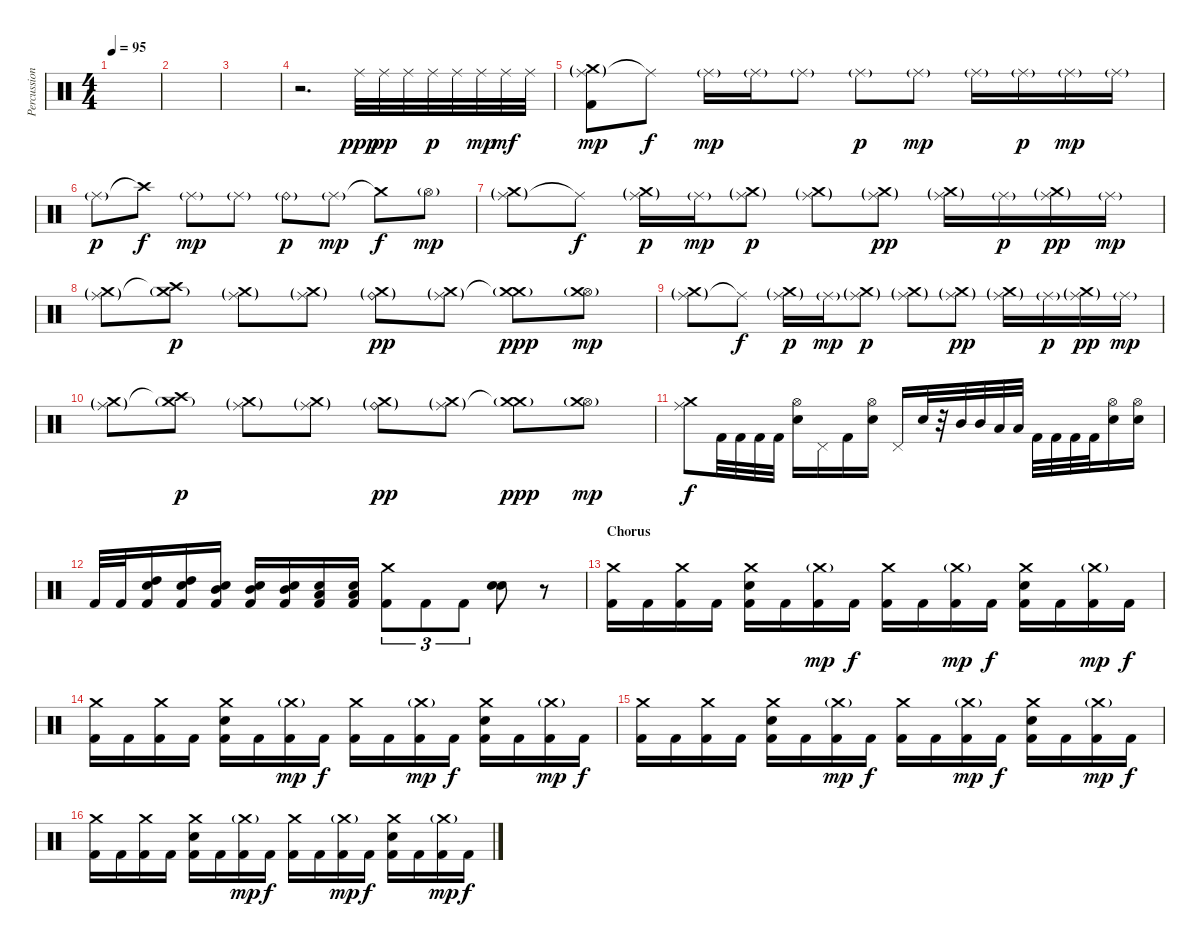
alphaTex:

\track ("Percussions" "Percussion") {instrument percussion}
\staff {score}
\articulation defaults
\ts (4 4)
\tempo 95
\clef neutral
\ks c
|
|
|
r.2{d} "Ride (middle)".32{dy ppp} "Ride (middle)".32{dy pp} "Ride (middle)".32 "Ride (middle)".32{dy p} "Ride (middle)".32 "Ride (middle)".32{dy mp} "Ride (middle)".32{dy mf} "Ride (middle)".32 |
("Ride (middle)"{g} "Crash medium (hit)"{g} "Kick (hit) 2").8{dy mp} "Ride (middle)"{t}.8{dy f} "Ride (middle)"{g}.16{dy mp} "Ride (middle)"{g}.16 "Ride (middle)"{g}.8 "Ride (middle)"{g}.8{dy p} "Ride (middle)"{g}.8{dy mp} "Ride (middle)"{g}.16 "Ride (middle)"{g}.16{dy p} "Ride (middle)"{g}.16{dy mp} "Ride (middle)"{g}.16 |
"Ride (middle)"{g}.8{dy p} "Crash high (hit)"{t}.8{dy f} "Ride (middle)"{g}.8{dy mp} "Ride (middle)"{g}.8 "Ride (bell)"{g}.8{dy p} "Ride (middle)"{g}.8{dy mp} "Crash medium (hit)"{t}.8{dy f} "Hi-Hat (open)"{g}.8{dy mp} |
("Ride (middle)"{g} "Crash medium (hit)"{g}).8 "Ride (middle)"{t}.8{dy f} ("Ride (middle)"{g} "Crash medium (hit)"{g}).16{dy p} "Ride (middle)"{g}.16{dy mp} ("Ride (middle)"{g} "Crash medium (hit)"{g}).8{dy p} ("Ride (middle)"{g} "Crash medium (hit)"{g}).8 ("Ride (middle)"{g} "Crash medium (hit)"{g}).8{dy pp} ("Ride (middle)"{g} "Crash medium (hit)"{g}).16 "Ride (middle)"{g}.16{dy p} ("Ride (middle)"{g} "Crash medium (hit)"{g}).16{dy pp} "Ride (middle)"{g}.16{dy mp} |
("Ride (middle)"{g} "Crash medium (hit)"{g}).8 ("Crash high (hit)"{t} "Crash medium (hit)"{g}).8{dy p} ("Ride (middle)"{g} "Crash medium (hit)"{g}).8 ("Ride (middle)"{g} "Crash medium (hit)"{g}).8 ("Ride (bell)"{g} "Crash medium (hit)"{g}).8{dy pp} ("Ride (middle)"{g} "Crash medium (hit)"{g}).8 ("Crash medium (hit)"{t} "Crash medium (hit)"{g}).8{dy ppp} ("Hi-Hat (open)"{g} "Crash medium (hit)"{g}).8{dy mp} |
("Ride (middle)"{g} "Crash medium (hit)"{g}).8 "Ride (middle)"{t}.8{dy f} ("Ride (middle)"{g} "Crash medium (hit)"{g}).16{dy p} "Ride (middle)"{g}.16{dy mp} ("Ride (middle)"{g} "Crash medium (hit)"{g}).8{dy p} ("Ride (middle)"{g} "Crash medium (hit)"{g}).8 ("Ride (middle)"{g} "Crash medium (hit)"{g}).8{dy pp} ("Ride (middle)"{g} "Crash medium (hit)"{g}).16 "Ride (middle)"{g}.16{dy p} ("Ride (middle)"{g} "Crash medium (hit)"{g}).16{dy pp} "Ride (middle)"{g}.16{dy mp} |
("Ride (middle)"{g} "Crash medium (hit)"{g}).8 ("Crash high (hit)"{t} "Crash medium (hit)"{g}).8{dy p} ("Ride (middle)"{g} "Crash medium (hit)"{g}).8 ("Ride (middle)"{g} "Crash medium (hit)"{g}).8 ("Ride (bell)"{g} "Crash medium (hit)"{g}).8{dy pp} ("Ride (middle)"{g} "Crash medium (hit)"{g}).8 ("Crash medium (hit)"{t} "Crash medium (hit)"{g}).8{dy ppp} ("Hi-Hat (open)"{g} "Crash medium (hit)"{g}).8{dy mp} |
("Ride (middle)" "Crash medium (hit)").8{dy f} "Kick (hit) 2".32 "Kick (hit) 2".32 "Kick (hit) 2".32 "Kick (hit) 2".32 ("Hi-Hat (open)" "Electric Snare (hit)").16 "Pedal Hi-Hat (hit)".16 "Kick (hit) 2".16 ("Hi-Hat (open)" "Electric Snare (hit)").16 "Pedal Hi-Hat (hit)".16 "Electric Snare (hit)".32 r.32 "Mid Tom (hit)".32 "Mid Tom (hit)".32 "Low Tom (hit)".32 "Low Tom (hit)".32 "Kick (hit) 2".32 "Kick (hit) 2".32 "Kick (hit) 2".32 "Kick (hit) 2".32 ("Hi-Hat (open)" "Electric Snare (hit)").16 ("Hi-Hat (open)" "Electric Snare (hit)").16 |
"Kick (hit) 2".32 "Kick (hit) 2".32 ("High Tom (hit)" "Electric Snare (hit)" "Kick (hit) 2").16 ("High Tom (hit)" "Electric Snare (hit)" "Kick (hit) 2").16 ("Mid Tom (hit)" "Electric Snare (hit)" "Kick (hit) 2").16 ("Mid Tom (hit)" "Electric Snare (hit)" "Kick (hit) 2").16 ("Mid Tom (hit)" "Electric Snare (hit)" "Kick (hit) 2").16 ("Low Tom (hit)" "Electric Snare (hit)" "Kick (hit) 2").16 ("Low Tom (hit)" "Electric Snare (hit)" "Kick (hit) 2").16 ("Crash medium (hit)" "Kick (hit) 2").8{tu (3 2)} "Kick (hit) 2".8{tu (3 2)} "Kick (hit) 2".8{tu (3 2)} ("Snare (hit) 2" "Electric Snare (hit)").8 r.8 |
\section ("" "Chorus")
("Crash medium (hit)" "Kick (hit) 2").16 "Kick (hit) 2".16 ("Crash medium (hit)" "Kick (hit) 2").16 "Kick (hit) 2".16 ("Crash medium (hit)" "Electric Snare (hit)" "Kick (hit) 2").16 "Kick (hit) 2".16 ("Crash medium (hit)"{g} "Kick (hit) 2").16{dy mp} "Kick (hit) 2".16{dy f} ("Crash medium (hit)" "Kick (hit) 2").16 "Kick (hit) 2".16 ("Crash medium (hit)"{g} "Kick (hit) 2").16{dy mp} "Kick (hit) 2".16{dy f} ("Crash medium (hit)" "Electric Snare (hit)" "Kick (hit) 2").16 "Kick (hit) 2".16 ("Crash medium (hit)"{g} "Kick (hit) 2").16{dy mp} "Kick (hit) 2".16{dy f} |
("Crash medium (hit)" "Kick (hit) 2").16 "Kick (hit) 2".16 ("Crash medium (hit)" "Kick (hit) 2").16 "Kick (hit) 2".16 ("Crash medium (hit)" "Electric Snare (hit)" "Kick (hit) 2").16 "Kick (hit) 2".16 ("Crash medium (hit)"{g} "Kick (hit) 2").16{dy mp} "Kick (hit) 2".16{dy f} ("Crash medium (hit)" "Kick (hit) 2").16 "Kick (hit) 2".16 ("Crash medium (hit)"{g} "Kick (hit) 2").16{dy mp} "Kick (hit) 2".16{dy f} ("Crash medium (hit)" "Electric Snare (hit)" "Kick (hit) 2").16 "Kick (hit) 2".16 ("Crash medium (hit)"{g} "Kick (hit) 2").16{dy mp} "Kick (hit) 2".16{dy f} |
("Crash medium (hit)" "Kick (hit) 2").16 "Kick (hit) 2".16 ("Crash medium (hit)" "Kick (hit) 2").16 "Kick (hit) 2".16 ("Crash medium (hit)" "Electric Snare (hit)" "Kick (hit) 2").16 "Kick (hit) 2".16 ("Crash medium (hit)"{g} "Kick (hit) 2").16{dy mp} "Kick (hit) 2".16{dy f} ("Crash medium (hit)" "Kick (hit) 2").16 "Kick (hit) 2".16 ("Crash medium (hit)"{g} "Kick (hit) 2").16{dy mp} "Kick (hit) 2".16{dy f} ("Crash medium (hit)" "Electric Snare (hit)" "Kick (hit) 2").16 "Kick (hit) 2".16 ("Crash medium (hit)"{g} "Kick (hit) 2").16{dy mp} "Kick (hit) 2".16{dy f} |
("Crash medium (hit)" "Kick (hit) 2").16 "Kick (hit) 2".16 ("Crash medium (hit)" "Kick (hit) 2").16 "Kick (hit) 2".16 ("Crash medium (hit)" "Electric Snare (hit)" "Kick (hit) 2").16 "Kick (hit) 2".16 ("Crash medium (hit)"{g} "Kick (hit) 2").16{dy mp} "Kick (hit) 2".16{dy f} ("Crash medium (hit)" "Kick (hit) 2").16 "Kick (hit) 2".16 ("Crash medium (hit)"{g} "Kick (hit) 2").16{dy mp} "Kick (hit) 2".16{dy f} ("Crash medium (hit)" "Electric Snare (hit)" "Kick (hit) 2").16 "Kick (hit) 2".16 ("Crash medium (hit)"{g} "Kick (hit) 2").16{dy mp} "Kick (hit) 2".16{dy f}
